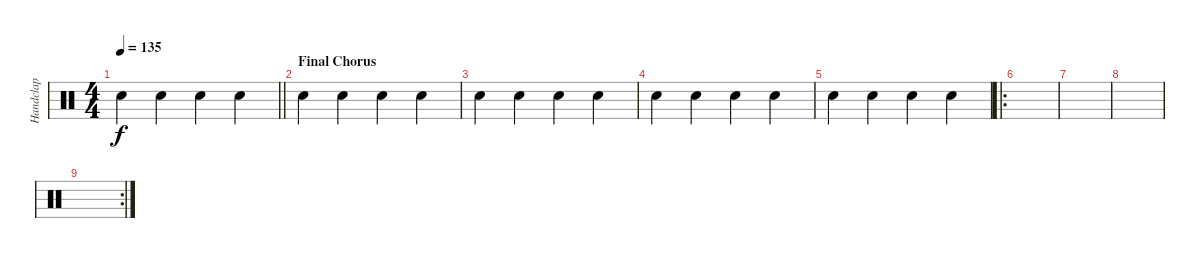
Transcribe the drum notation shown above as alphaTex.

\track ("Handclap" "Handclap") {instrument percussion}
\staff {score}
\articulation defaults
\ts (4 4)
\tempo 135
\clef neutral
\barLineRight lightlight
\ks c "Hand Clap (hit)".4{dy f} "Hand Clap (hit)".4 "Hand Clap (hit)".4 "Hand Clap (hit)".4
|
\section ("" "Final Chorus")
"Hand Clap (hit)".4 "Hand Clap (hit)".4 "Hand Clap (hit)".4 "Hand Clap (hit)".4 |
"Hand Clap (hit)".4 "Hand Clap (hit)".4 "Hand Clap (hit)".4 "Hand Clap (hit)".4 |
"Hand Clap (hit)".4 "Hand Clap (hit)".4 "Hand Clap (hit)".4 "Hand Clap (hit)".4 |
"Hand Clap (hit)".4 "Hand Clap (hit)".4 "Hand Clap (hit)".4 "Hand Clap (hit)".4 |
\ro
|
|
|
\rc 2
